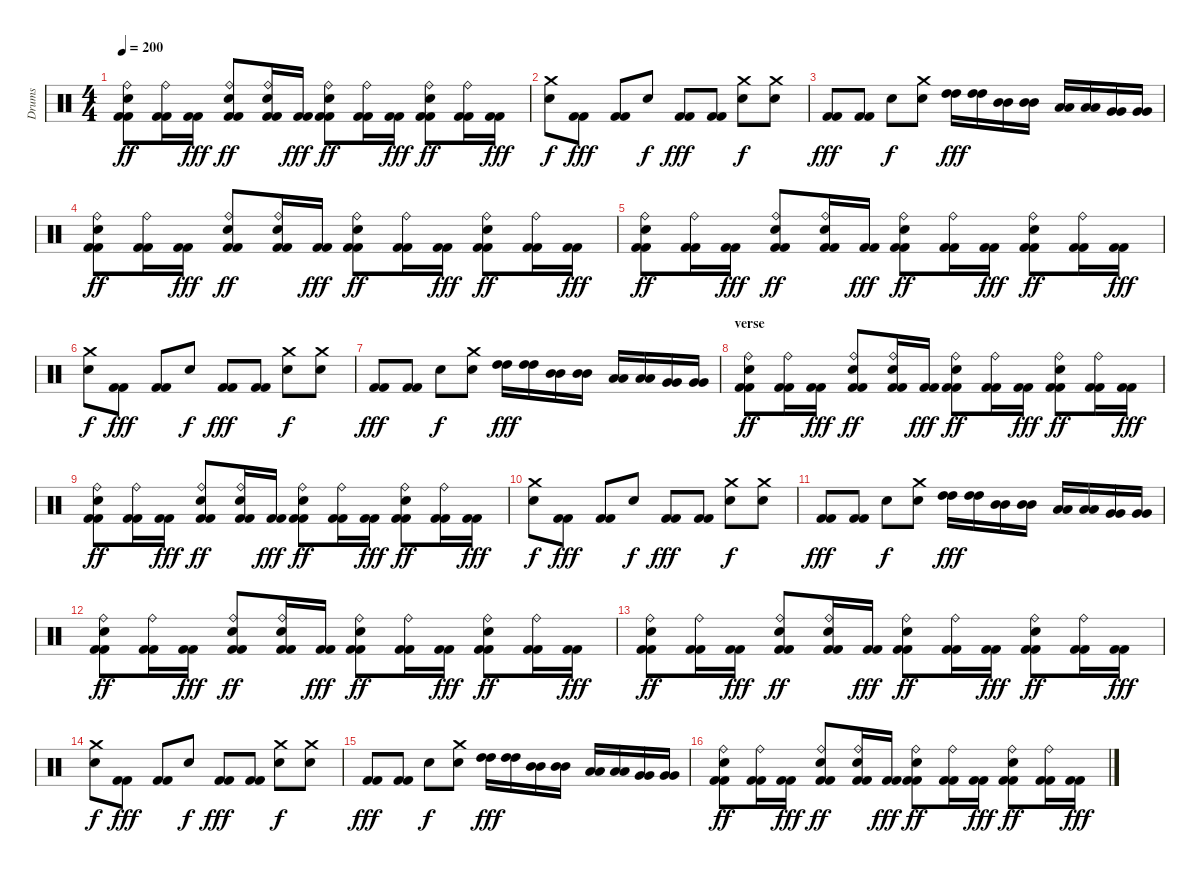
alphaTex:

\track ("Drums" "Drums") {instrument percussion}
\staff {score}
\articulation defaults
\ts (4 4)
\tempo 200
\clef neutral
\ks c
("Kick (hit) 2" "Kick (hit) 2" "Ride (bell)" "Electric Snare (hit)").8{dy ff} ("Kick (hit) 2" "Kick (hit) 2" "Ride (bell)").16 ("Kick (hit) 2" "Kick (hit) 2").16{dy fff} ("Kick (hit) 2" "Kick (hit) 2" "Ride (bell)" "Electric Snare (hit)").8{dy ff} ("Kick (hit) 2" "Kick (hit) 2" "Ride (bell)" "Electric Snare (hit)").16 ("Kick (hit) 2" "Kick (hit) 2").16{dy fff} ("Kick (hit) 2" "Kick (hit) 2" "Ride (bell)" "Electric Snare (hit)").8{dy ff} ("Kick (hit) 2" "Kick (hit) 2" "Ride (bell)").16 ("Kick (hit) 2" "Kick (hit) 2").16{dy fff} ("Kick (hit) 2" "Kick (hit) 2" "Ride (bell)" "Electric Snare (hit)").8{dy ff} ("Kick (hit) 2" "Kick (hit) 2" "Ride (bell)").16 ("Kick (hit) 2" "Kick (hit) 2").16{dy fff} |
("Crash medium (hit)" "Electric Snare (hit)").8{dy f} ("Kick (hit) 2" "Kick (hit) 2").8{dy fff} ("Kick (hit) 2" "Kick (hit) 2").8 "Electric Snare (hit)".8{dy f} ("Kick (hit) 2" "Kick (hit) 2").8{dy fff} ("Kick (hit) 2" "Kick (hit) 2").8 ("Crash medium (hit)" "Electric Snare (hit)").8{dy f} ("Crash medium (hit)" "Electric Snare (hit)").8 |
("Kick (hit) 2" "Kick (hit) 2").8{dy fff} ("Kick (hit) 2" "Kick (hit) 2").8 "Electric Snare (hit)".8{dy f} ("Crash medium (hit)" "Electric Snare (hit)").8 ("High Tom (hit)" "High Tom (hit)").16{dy fff} ("High Tom (hit)" "High Tom (hit)").16 ("Mid Tom (hit)" "Mid Tom (hit)").16 ("Mid Tom (hit)" "Mid Tom (hit)").16 ("Low Tom (hit)" "Low Tom (hit)").16 ("Low Tom (hit)" "Low Tom (hit)").16 ("Very Low Tom (hit)" "Very Low Tom (hit)").16 ("Very Low Tom (hit)" "Very Low Tom (hit)").16 |
("Kick (hit) 2" "Kick (hit) 2" "Ride (bell)" "Electric Snare (hit)").8{dy ff} ("Kick (hit) 2" "Kick (hit) 2" "Ride (bell)").16 ("Kick (hit) 2" "Kick (hit) 2").16{dy fff} ("Kick (hit) 2" "Kick (hit) 2" "Ride (bell)" "Electric Snare (hit)").8{dy ff} ("Kick (hit) 2" "Kick (hit) 2" "Ride (bell)" "Electric Snare (hit)").16 ("Kick (hit) 2" "Kick (hit) 2").16{dy fff} ("Kick (hit) 2" "Kick (hit) 2" "Ride (bell)" "Electric Snare (hit)").8{dy ff} ("Kick (hit) 2" "Kick (hit) 2" "Ride (bell)").16 ("Kick (hit) 2" "Kick (hit) 2").16{dy fff} ("Kick (hit) 2" "Kick (hit) 2" "Ride (bell)" "Electric Snare (hit)").8{dy ff} ("Kick (hit) 2" "Kick (hit) 2" "Ride (bell)").16 ("Kick (hit) 2" "Kick (hit) 2").16{dy fff} |
("Kick (hit) 2" "Kick (hit) 2" "Ride (bell)" "Electric Snare (hit)").8{dy ff} ("Kick (hit) 2" "Kick (hit) 2" "Ride (bell)").16 ("Kick (hit) 2" "Kick (hit) 2").16{dy fff} ("Kick (hit) 2" "Kick (hit) 2" "Ride (bell)" "Electric Snare (hit)").8{dy ff} ("Kick (hit) 2" "Kick (hit) 2" "Ride (bell)" "Electric Snare (hit)").16 ("Kick (hit) 2" "Kick (hit) 2").16{dy fff} ("Kick (hit) 2" "Kick (hit) 2" "Ride (bell)" "Electric Snare (hit)").8{dy ff} ("Kick (hit) 2" "Kick (hit) 2" "Ride (bell)").16 ("Kick (hit) 2" "Kick (hit) 2").16{dy fff} ("Kick (hit) 2" "Kick (hit) 2" "Ride (bell)" "Electric Snare (hit)").8{dy ff} ("Kick (hit) 2" "Kick (hit) 2" "Ride (bell)").16 ("Kick (hit) 2" "Kick (hit) 2").16{dy fff} |
("Crash medium (hit)" "Electric Snare (hit)").8{dy f} ("Kick (hit) 2" "Kick (hit) 2").8{dy fff} ("Kick (hit) 2" "Kick (hit) 2").8 "Electric Snare (hit)".8{dy f} ("Kick (hit) 2" "Kick (hit) 2").8{dy fff} ("Kick (hit) 2" "Kick (hit) 2").8 ("Crash medium (hit)" "Electric Snare (hit)").8{dy f} ("Crash medium (hit)" "Electric Snare (hit)").8 |
("Kick (hit) 2" "Kick (hit) 2").8{dy fff} ("Kick (hit) 2" "Kick (hit) 2").8 "Electric Snare (hit)".8{dy f} ("Crash medium (hit)" "Electric Snare (hit)").8 ("High Tom (hit)" "High Tom (hit)").16{dy fff} ("High Tom (hit)" "High Tom (hit)").16 ("Mid Tom (hit)" "Mid Tom (hit)").16 ("Mid Tom (hit)" "Mid Tom (hit)").16 ("Low Tom (hit)" "Low Tom (hit)").16 ("Low Tom (hit)" "Low Tom (hit)").16 ("Very Low Tom (hit)" "Very Low Tom (hit)").16 ("Very Low Tom (hit)" "Very Low Tom (hit)").16 |
\section ("" "verse")
("Kick (hit) 2" "Kick (hit) 2" "Ride (bell)" "Electric Snare (hit)").8{dy ff} ("Kick (hit) 2" "Kick (hit) 2" "Ride (bell)").16 ("Kick (hit) 2" "Kick (hit) 2").16{dy fff} ("Kick (hit) 2" "Kick (hit) 2" "Ride (bell)" "Electric Snare (hit)").8{dy ff} ("Kick (hit) 2" "Kick (hit) 2" "Ride (bell)" "Electric Snare (hit)").16 ("Kick (hit) 2" "Kick (hit) 2").16{dy fff} ("Kick (hit) 2" "Kick (hit) 2" "Ride (bell)" "Electric Snare (hit)").8{dy ff} ("Kick (hit) 2" "Kick (hit) 2" "Ride (bell)").16 ("Kick (hit) 2" "Kick (hit) 2").16{dy fff} ("Kick (hit) 2" "Kick (hit) 2" "Ride (bell)" "Electric Snare (hit)").8{dy ff} ("Kick (hit) 2" "Kick (hit) 2" "Ride (bell)").16 ("Kick (hit) 2" "Kick (hit) 2").16{dy fff} |
("Kick (hit) 2" "Kick (hit) 2" "Ride (bell)" "Electric Snare (hit)").8{dy ff} ("Kick (hit) 2" "Kick (hit) 2" "Ride (bell)").16 ("Kick (hit) 2" "Kick (hit) 2").16{dy fff} ("Kick (hit) 2" "Kick (hit) 2" "Ride (bell)" "Electric Snare (hit)").8{dy ff} ("Kick (hit) 2" "Kick (hit) 2" "Ride (bell)" "Electric Snare (hit)").16 ("Kick (hit) 2" "Kick (hit) 2").16{dy fff} ("Kick (hit) 2" "Kick (hit) 2" "Ride (bell)" "Electric Snare (hit)").8{dy ff} ("Kick (hit) 2" "Kick (hit) 2" "Ride (bell)").16 ("Kick (hit) 2" "Kick (hit) 2").16{dy fff} ("Kick (hit) 2" "Kick (hit) 2" "Ride (bell)" "Electric Snare (hit)").8{dy ff} ("Kick (hit) 2" "Kick (hit) 2" "Ride (bell)").16 ("Kick (hit) 2" "Kick (hit) 2").16{dy fff} |
("Crash medium (hit)" "Electric Snare (hit)").8{dy f} ("Kick (hit) 2" "Kick (hit) 2").8{dy fff} ("Kick (hit) 2" "Kick (hit) 2").8 "Electric Snare (hit)".8{dy f} ("Kick (hit) 2" "Kick (hit) 2").8{dy fff} ("Kick (hit) 2" "Kick (hit) 2").8 ("Crash medium (hit)" "Electric Snare (hit)").8{dy f} ("Crash medium (hit)" "Electric Snare (hit)").8 |
("Kick (hit) 2" "Kick (hit) 2").8{dy fff} ("Kick (hit) 2" "Kick (hit) 2").8 "Electric Snare (hit)".8{dy f} ("Crash medium (hit)" "Electric Snare (hit)").8 ("High Tom (hit)" "High Tom (hit)").16{dy fff} ("High Tom (hit)" "High Tom (hit)").16 ("Mid Tom (hit)" "Mid Tom (hit)").16 ("Mid Tom (hit)" "Mid Tom (hit)").16 ("Low Tom (hit)" "Low Tom (hit)").16 ("Low Tom (hit)" "Low Tom (hit)").16 ("Very Low Tom (hit)" "Very Low Tom (hit)").16 ("Very Low Tom (hit)" "Very Low Tom (hit)").16 |
("Kick (hit) 2" "Kick (hit) 2" "Ride (bell)" "Electric Snare (hit)").8{dy ff} ("Kick (hit) 2" "Kick (hit) 2" "Ride (bell)").16 ("Kick (hit) 2" "Kick (hit) 2").16{dy fff} ("Kick (hit) 2" "Kick (hit) 2" "Ride (bell)" "Electric Snare (hit)").8{dy ff} ("Kick (hit) 2" "Kick (hit) 2" "Ride (bell)" "Electric Snare (hit)").16 ("Kick (hit) 2" "Kick (hit) 2").16{dy fff} ("Kick (hit) 2" "Kick (hit) 2" "Ride (bell)" "Electric Snare (hit)").8{dy ff} ("Kick (hit) 2" "Kick (hit) 2" "Ride (bell)").16 ("Kick (hit) 2" "Kick (hit) 2").16{dy fff} ("Kick (hit) 2" "Kick (hit) 2" "Ride (bell)" "Electric Snare (hit)").8{dy ff} ("Kick (hit) 2" "Kick (hit) 2" "Ride (bell)").16 ("Kick (hit) 2" "Kick (hit) 2").16{dy fff} |
("Kick (hit) 2" "Kick (hit) 2" "Ride (bell)" "Electric Snare (hit)").8{dy ff} ("Kick (hit) 2" "Kick (hit) 2" "Ride (bell)").16 ("Kick (hit) 2" "Kick (hit) 2").16{dy fff} ("Kick (hit) 2" "Kick (hit) 2" "Ride (bell)" "Electric Snare (hit)").8{dy ff} ("Kick (hit) 2" "Kick (hit) 2" "Ride (bell)" "Electric Snare (hit)").16 ("Kick (hit) 2" "Kick (hit) 2").16{dy fff} ("Kick (hit) 2" "Kick (hit) 2" "Ride (bell)" "Electric Snare (hit)").8{dy ff} ("Kick (hit) 2" "Kick (hit) 2" "Ride (bell)").16 ("Kick (hit) 2" "Kick (hit) 2").16{dy fff} ("Kick (hit) 2" "Kick (hit) 2" "Ride (bell)" "Electric Snare (hit)").8{dy ff} ("Kick (hit) 2" "Kick (hit) 2" "Ride (bell)").16 ("Kick (hit) 2" "Kick (hit) 2").16{dy fff} |
("Crash medium (hit)" "Electric Snare (hit)").8{dy f} ("Kick (hit) 2" "Kick (hit) 2").8{dy fff} ("Kick (hit) 2" "Kick (hit) 2").8 "Electric Snare (hit)".8{dy f} ("Kick (hit) 2" "Kick (hit) 2").8{dy fff} ("Kick (hit) 2" "Kick (hit) 2").8 ("Crash medium (hit)" "Electric Snare (hit)").8{dy f} ("Crash medium (hit)" "Electric Snare (hit)").8 |
("Kick (hit) 2" "Kick (hit) 2").8{dy fff} ("Kick (hit) 2" "Kick (hit) 2").8 "Electric Snare (hit)".8{dy f} ("Crash medium (hit)" "Electric Snare (hit)").8 ("High Tom (hit)" "High Tom (hit)").16{dy fff} ("High Tom (hit)" "High Tom (hit)").16 ("Mid Tom (hit)" "Mid Tom (hit)").16 ("Mid Tom (hit)" "Mid Tom (hit)").16 ("Low Tom (hit)" "Low Tom (hit)").16 ("Low Tom (hit)" "Low Tom (hit)").16 ("Very Low Tom (hit)" "Very Low Tom (hit)").16 ("Very Low Tom (hit)" "Very Low Tom (hit)").16 |
("Kick (hit) 2" "Kick (hit) 2" "Ride (bell)" "Electric Snare (hit)").8{dy ff} ("Kick (hit) 2" "Kick (hit) 2" "Ride (bell)").16 ("Kick (hit) 2" "Kick (hit) 2").16{dy fff} ("Kick (hit) 2" "Kick (hit) 2" "Ride (bell)" "Electric Snare (hit)").8{dy ff} ("Kick (hit) 2" "Kick (hit) 2" "Ride (bell)" "Electric Snare (hit)").16 ("Kick (hit) 2" "Kick (hit) 2").16{dy fff} ("Kick (hit) 2" "Kick (hit) 2" "Ride (bell)" "Electric Snare (hit)").8{dy ff} ("Kick (hit) 2" "Kick (hit) 2" "Ride (bell)").16 ("Kick (hit) 2" "Kick (hit) 2").16{dy fff} ("Kick (hit) 2" "Kick (hit) 2" "Ride (bell)" "Electric Snare (hit)").8{dy ff} ("Kick (hit) 2" "Kick (hit) 2" "Ride (bell)").16 ("Kick (hit) 2" "Kick (hit) 2").16{dy fff}
